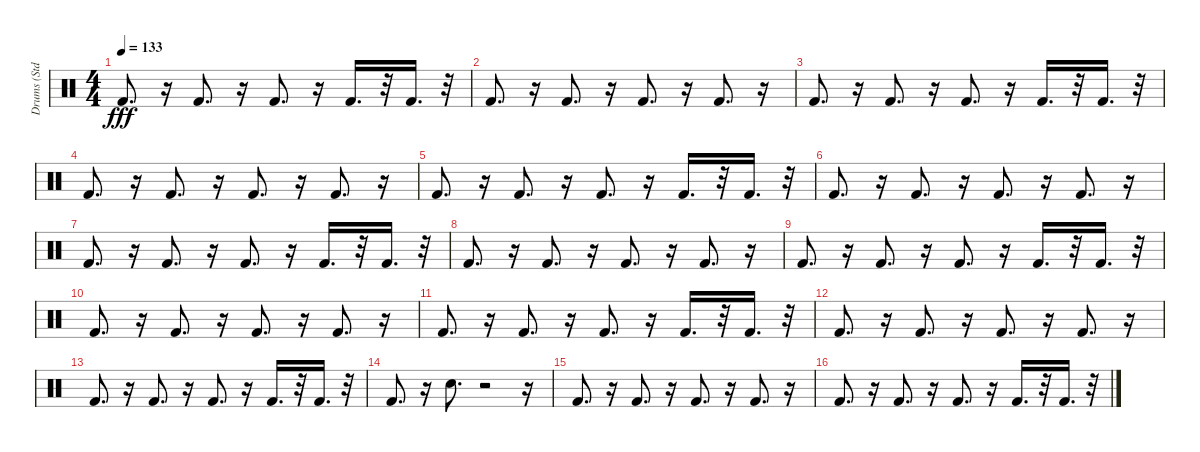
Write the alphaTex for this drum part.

\track ("Drums (Std.)" "Drums (Std") {instrument percussion}
\staff {score}
\articulation defaults
\ts (4 4)
\tempo 133
\clef neutral
\ks c "Kick (hit) 2".8{d dy fff}
r.16 "Kick (hit) 2".8{d} r.16 "Kick (hit) 2".8{d} r.16 "Kick (hit) 2".16{d} r.32 "Kick (hit) 2".16{d} r.32 |
"Kick (hit) 2".8{d} r.16 "Kick (hit) 2".8{d} r.16 "Kick (hit) 2".8{d} r.16 "Kick (hit) 2".8{d} r.16 |
"Kick (hit) 2".8{d} r.16 "Kick (hit) 2".8{d} r.16 "Kick (hit) 2".8{d} r.16 "Kick (hit) 2".16{d} r.32 "Kick (hit) 2".16{d} r.32 |
"Kick (hit) 2".8{d} r.16 "Kick (hit) 2".8{d} r.16 "Kick (hit) 2".8{d} r.16 "Kick (hit) 2".8{d} r.16 |
"Kick (hit) 2".8{d} r.16 "Kick (hit) 2".8{d} r.16 "Kick (hit) 2".8{d} r.16 "Kick (hit) 2".16{d} r.32 "Kick (hit) 2".16{d} r.32 |
"Kick (hit) 2".8{d} r.16 "Kick (hit) 2".8{d} r.16 "Kick (hit) 2".8{d} r.16 "Kick (hit) 2".8{d} r.16 |
"Kick (hit) 2".8{d} r.16 "Kick (hit) 2".8{d} r.16 "Kick (hit) 2".8{d} r.16 "Kick (hit) 2".16{d} r.32 "Kick (hit) 2".16{d} r.32 |
"Kick (hit) 2".8{d} r.16 "Kick (hit) 2".8{d} r.16 "Kick (hit) 2".8{d} r.16 "Kick (hit) 2".8{d} r.16 |
"Kick (hit) 2".8{d} r.16 "Kick (hit) 2".8{d} r.16 "Kick (hit) 2".8{d} r.16 "Kick (hit) 2".16{d} r.32 "Kick (hit) 2".16{d} r.32 |
"Kick (hit) 2".8{d} r.16 "Kick (hit) 2".8{d} r.16 "Kick (hit) 2".8{d} r.16 "Kick (hit) 2".8{d} r.16 |
"Kick (hit) 2".8{d} r.16 "Kick (hit) 2".8{d} r.16 "Kick (hit) 2".8{d} r.16 "Kick (hit) 2".16{d} r.32 "Kick (hit) 2".16{d} r.32 |
"Kick (hit) 2".8{d} r.16 "Kick (hit) 2".8{d} r.16 "Kick (hit) 2".8{d} r.16 "Kick (hit) 2".8{d} r.16 |
"Kick (hit) 2".8{d} r.16 "Kick (hit) 2".8{d} r.16 "Kick (hit) 2".8{d} r.16 "Kick (hit) 2".16{d} r.32 "Kick (hit) 2".16{d} r.32 |
"Kick (hit) 2".8{d} r.16 "Hand Clap (hit)".8{d} r.2 r.16 |
"Kick (hit) 2".8{d} r.16 "Kick (hit) 2".8{d} r.16 "Kick (hit) 2".8{d} r.16 "Kick (hit) 2".8{d} r.16 |
"Kick (hit) 2".8{d} r.16 "Kick (hit) 2".8{d} r.16 "Kick (hit) 2".8{d} r.16 "Kick (hit) 2".16{d} r.32 "Kick (hit) 2".16{d} r.32
